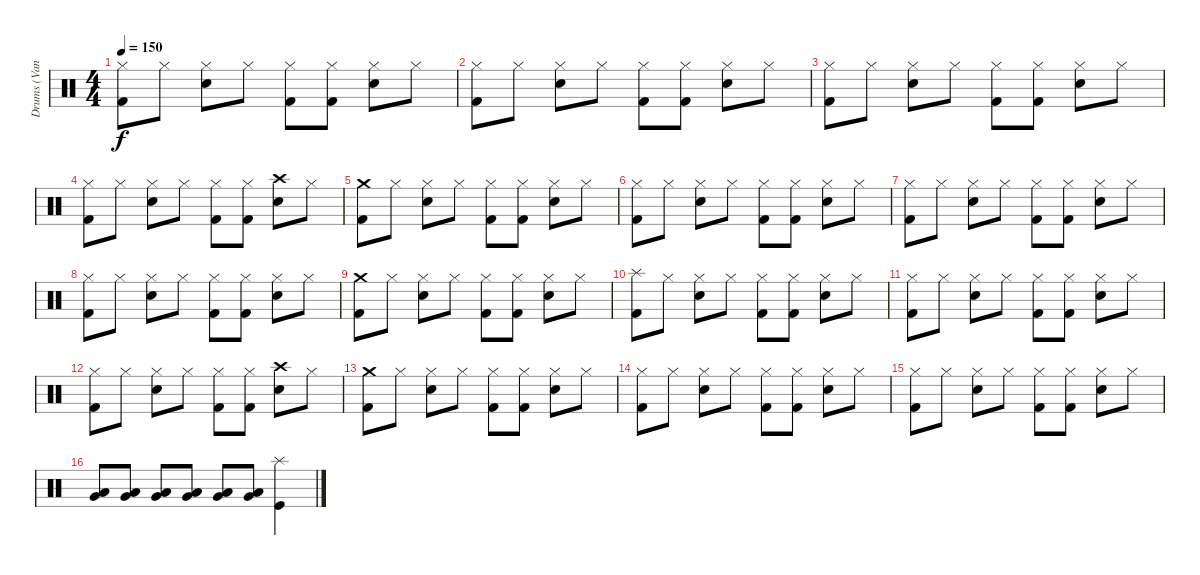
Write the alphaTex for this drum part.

\track ("Drums (Vandel)" "Drums (Van") {instrument percussion}
\staff {score}
\articulation defaults
\ts (4 4)
\tempo 150
\clef neutral
\ks c
("Hi-Hat (closed)" "Kick (hit) 2").8{dy f} "Hi-Hat (closed)".8 ("Hi-Hat (closed)" "Snare (hit) 2").8 "Hi-Hat (closed)".8 ("Hi-Hat (closed)" "Kick (hit) 2").8 ("Hi-Hat (closed)" "Kick (hit) 2").8 ("Hi-Hat (closed)" "Snare (hit) 2").8 "Hi-Hat (closed)".8 |
("Hi-Hat (closed)" "Kick (hit) 2").8 "Hi-Hat (closed)".8 ("Hi-Hat (closed)" "Snare (hit) 2").8 "Hi-Hat (closed)".8 ("Hi-Hat (closed)" "Kick (hit) 2").8 ("Hi-Hat (closed)" "Kick (hit) 2").8 ("Hi-Hat (closed)" "Snare (hit) 2").8 "Hi-Hat (closed)".8 |
("Hi-Hat (closed)" "Kick (hit) 2").8 "Hi-Hat (closed)".8 ("Hi-Hat (closed)" "Snare (hit) 2").8 "Hi-Hat (closed)".8 ("Hi-Hat (closed)" "Kick (hit) 2").8 ("Hi-Hat (closed)" "Kick (hit) 2").8 ("Hi-Hat (closed)" "Snare (hit) 2").8 "Hi-Hat (closed)".8 |
("Hi-Hat (closed)" "Kick (hit) 2").8 "Hi-Hat (closed)".8 ("Hi-Hat (closed)" "Snare (hit) 2").8 "Hi-Hat (closed)".8 ("Hi-Hat (closed)" "Kick (hit) 2").8 ("Hi-Hat (closed)" "Kick (hit) 2").8 ("Crash high (hit)" "Snare (hit) 2").8 "Hi-Hat (closed)".8 |
("Crash medium (hit)" "Kick (hit) 2").8 "Hi-Hat (closed)".8 ("Hi-Hat (closed)" "Snare (hit) 2").8 "Hi-Hat (closed)".8 ("Hi-Hat (closed)" "Kick (hit) 2").8 ("Hi-Hat (closed)" "Kick (hit) 2").8 ("Hi-Hat (closed)" "Snare (hit) 2").8 "Hi-Hat (closed)".8 |
("Hi-Hat (closed)" "Kick (hit) 2").8 "Hi-Hat (closed)".8 ("Hi-Hat (closed)" "Snare (hit) 2").8 "Hi-Hat (closed)".8 ("Hi-Hat (closed)" "Kick (hit) 2").8 ("Hi-Hat (closed)" "Kick (hit) 2").8 ("Hi-Hat (closed)" "Snare (hit) 2").8 "Hi-Hat (closed)".8 |
("Hi-Hat (closed)" "Kick (hit) 2").8 "Hi-Hat (closed)".8 ("Hi-Hat (closed)" "Snare (hit) 2").8 "Hi-Hat (closed)".8 ("Hi-Hat (closed)" "Kick (hit) 2").8 ("Hi-Hat (closed)" "Kick (hit) 2").8 ("Hi-Hat (closed)" "Snare (hit) 2").8 "Hi-Hat (closed)".8 |
("Hi-Hat (closed)" "Kick (hit) 2").8 "Hi-Hat (closed)".8 ("Hi-Hat (closed)" "Snare (hit) 2").8 "Hi-Hat (closed)".8 ("Hi-Hat (closed)" "Kick (hit) 2").8 ("Hi-Hat (closed)" "Kick (hit) 2").8 ("Hi-Hat (closed)" "Snare (hit) 2").8 "Hi-Hat (closed)".8 |
("Crash medium (hit)" "Kick (hit) 2").8 "Hi-Hat (closed)".8 ("Hi-Hat (closed)" "Snare (hit) 2").8 "Hi-Hat (closed)".8 ("Hi-Hat (closed)" "Kick (hit) 2").8 ("Hi-Hat (closed)" "Kick (hit) 2").8 ("Hi-Hat (closed)" "Snare (hit) 2").8 "Hi-Hat (closed)".8 |
("Splash (hit)" "Kick (hit) 2").8 "Hi-Hat (closed)".8 ("Hi-Hat (closed)" "Snare (hit) 2").8 "Hi-Hat (closed)".8 ("Hi-Hat (closed)" "Kick (hit) 2").8 ("Hi-Hat (closed)" "Kick (hit) 2").8 ("Hi-Hat (closed)" "Snare (hit) 2").8 "Hi-Hat (closed)".8 |
("Hi-Hat (closed)" "Kick (hit) 2").8 "Hi-Hat (closed)".8 ("Hi-Hat (closed)" "Snare (hit) 2").8 "Hi-Hat (closed)".8 ("Hi-Hat (closed)" "Kick (hit) 2").8 ("Hi-Hat (closed)" "Kick (hit) 2").8 ("Hi-Hat (closed)" "Snare (hit) 2").8 "Hi-Hat (closed)".8 |
("Hi-Hat (closed)" "Kick (hit) 2").8 "Hi-Hat (closed)".8 ("Hi-Hat (closed)" "Snare (hit) 2").8 "Hi-Hat (closed)".8 ("Hi-Hat (closed)" "Kick (hit) 2").8 ("Hi-Hat (closed)" "Kick (hit) 2").8 ("Crash high (hit)" "Snare (hit) 2").8 "Hi-Hat (closed)".8 |
("Crash medium (hit)" "Kick (hit) 2").8 "Hi-Hat (closed)".8 ("Hi-Hat (closed)" "Snare (hit) 2").8 "Hi-Hat (closed)".8 ("Hi-Hat (closed)" "Kick (hit) 2").8 ("Hi-Hat (closed)" "Kick (hit) 2").8 ("Hi-Hat (closed)" "Snare (hit) 2").8 "Hi-Hat (closed)".8 |
("Hi-Hat (closed)" "Kick (hit) 2").8 "Hi-Hat (closed)".8 ("Hi-Hat (closed)" "Snare (hit) 2").8 "Hi-Hat (closed)".8 ("Hi-Hat (closed)" "Kick (hit) 2").8 ("Hi-Hat (closed)" "Kick (hit) 2").8 ("Hi-Hat (closed)" "Snare (hit) 2").8 "Hi-Hat (closed)".8 |
("Hi-Hat (closed)" "Kick (hit) 2").8 "Hi-Hat (closed)".8 ("Hi-Hat (closed)" "Snare (hit) 2").8 "Hi-Hat (closed)".8 ("Hi-Hat (closed)" "Kick (hit) 2").8 ("Hi-Hat (closed)" "Kick (hit) 2").8 ("Hi-Hat (closed)" "Snare (hit) 2").8 "Hi-Hat (closed)".8 |
("Low Tom (hit)" "Very Low Tom (hit)").8 ("Low Tom (hit)" "Very Low Tom (hit)").8 ("Low Tom (hit)" "Very Low Tom (hit)").8 ("Low Tom (hit)" "Very Low Tom (hit)").8 ("Low Tom (hit)" "Very Low Tom (hit)").8 ("Low Tom (hit)" "Very Low Tom (hit)").8 ("Splash (hit)" "Kick (hit)").4
